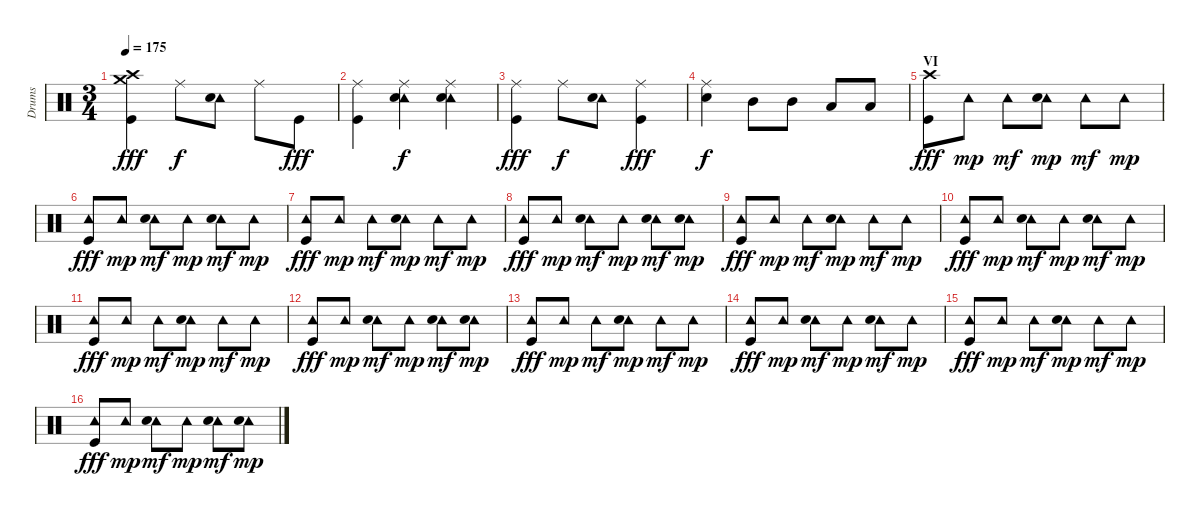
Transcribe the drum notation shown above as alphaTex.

\track ("Drums" "Drums") {instrument percussion}
\staff {score}
\articulation defaults
\ts (3 4)
\tempo 175
\clef neutral
\ks c
("Crash high (hit)" "Crash medium (hit)" "Kick (hit)").4{dy fff} "Ride (middle)".8{dy f} ("Tambourine (hit)" "Snare (hit) 2").8 "Ride (middle)".8 "Kick (hit)".8{dy fff} |
("Ride (middle)" "Kick (hit)").4 ("Ride (middle)" "Tambourine (hit)" "Snare (hit) 2").4{dy f} ("Ride (middle)" "Tambourine (hit)" "Snare (hit) 2").4 |
("Ride (middle)" "Kick (hit)").4{dy fff} "Ride (middle)".8{dy f} ("Tambourine (hit)" "Snare (hit) 2").8 ("Ride (middle)" "Kick (hit)").4{dy fff} |
("Ride (middle)" "Snare (hit) 2").4{dy f} "Mid Tom (hit)".8 "Mid Tom (hit)".8 "Low Tom (hit)".8 "Low Tom (hit)".8 |
\section ("" "VI")
("Crash high (hit)" "Kick (hit)").8{dy fff} "Tambourine (hit)".8{dy mp} "Tambourine (hit)".8{dy mf} ("Tambourine (hit)" "Snare (hit) 2").8{dy mp} "Tambourine (hit)".8{dy mf} "Tambourine (hit)".8{dy mp} |
("Tambourine (hit)" "Kick (hit)").8{dy fff} "Tambourine (hit)".8{dy mp} ("Tambourine (hit)" "Snare (hit) 2").8{dy mf} "Tambourine (hit)".8{dy mp} ("Tambourine (hit)" "Snare (hit) 2").8{dy mf} "Tambourine (hit)".8{dy mp} |
("Tambourine (hit)" "Kick (hit)").8{dy fff} "Tambourine (hit)".8{dy mp} "Tambourine (hit)".8{dy mf} ("Tambourine (hit)" "Snare (hit) 2").8{dy mp} "Tambourine (hit)".8{dy mf} "Tambourine (hit)".8{dy mp} |
("Tambourine (hit)" "Kick (hit)").8{dy fff} "Tambourine (hit)".8{dy mp} ("Tambourine (hit)" "Snare (hit) 2").8{dy mf} "Tambourine (hit)".8{dy mp} ("Tambourine (hit)" "Snare (hit) 2").8{dy mf} ("Tambourine (hit)" "Snare (hit) 2").8{dy mp} |
("Tambourine (hit)" "Kick (hit)").8{dy fff} "Tambourine (hit)".8{dy mp} "Tambourine (hit)".8{dy mf} ("Tambourine (hit)" "Snare (hit) 2").8{dy mp} "Tambourine (hit)".8{dy mf} "Tambourine (hit)".8{dy mp} |
("Tambourine (hit)" "Kick (hit)").8{dy fff} "Tambourine (hit)".8{dy mp} ("Tambourine (hit)" "Snare (hit) 2").8{dy mf} "Tambourine (hit)".8{dy mp} ("Tambourine (hit)" "Snare (hit) 2").8{dy mf} "Tambourine (hit)".8{dy mp} |
("Tambourine (hit)" "Kick (hit)").8{dy fff} "Tambourine (hit)".8{dy mp} "Tambourine (hit)".8{dy mf} ("Tambourine (hit)" "Snare (hit) 2").8{dy mp} "Tambourine (hit)".8{dy mf} "Tambourine (hit)".8{dy mp} |
("Tambourine (hit)" "Kick (hit)").8{dy fff} "Tambourine (hit)".8{dy mp} ("Tambourine (hit)" "Snare (hit) 2").8{dy mf} "Tambourine (hit)".8{dy mp} ("Tambourine (hit)" "Snare (hit) 2").8{dy mf} ("Tambourine (hit)" "Snare (hit) 2").8{dy mp} |
("Tambourine (hit)" "Kick (hit)").8{dy fff} "Tambourine (hit)".8{dy mp} "Tambourine (hit)".8{dy mf} ("Tambourine (hit)" "Snare (hit) 2").8{dy mp} "Tambourine (hit)".8{dy mf} "Tambourine (hit)".8{dy mp} |
("Tambourine (hit)" "Kick (hit)").8{dy fff} "Tambourine (hit)".8{dy mp} ("Tambourine (hit)" "Snare (hit) 2").8{dy mf} "Tambourine (hit)".8{dy mp} ("Tambourine (hit)" "Snare (hit) 2").8{dy mf} "Tambourine (hit)".8{dy mp} |
("Tambourine (hit)" "Kick (hit)").8{dy fff} "Tambourine (hit)".8{dy mp} "Tambourine (hit)".8{dy mf} ("Tambourine (hit)" "Snare (hit) 2").8{dy mp} "Tambourine (hit)".8{dy mf} "Tambourine (hit)".8{dy mp} |
("Tambourine (hit)" "Kick (hit)").8{dy fff} "Tambourine (hit)".8{dy mp} ("Tambourine (hit)" "Snare (hit) 2").8{dy mf} "Tambourine (hit)".8{dy mp} ("Tambourine (hit)" "Snare (hit) 2").8{dy mf} ("Tambourine (hit)" "Snare (hit) 2").8{dy mp}
